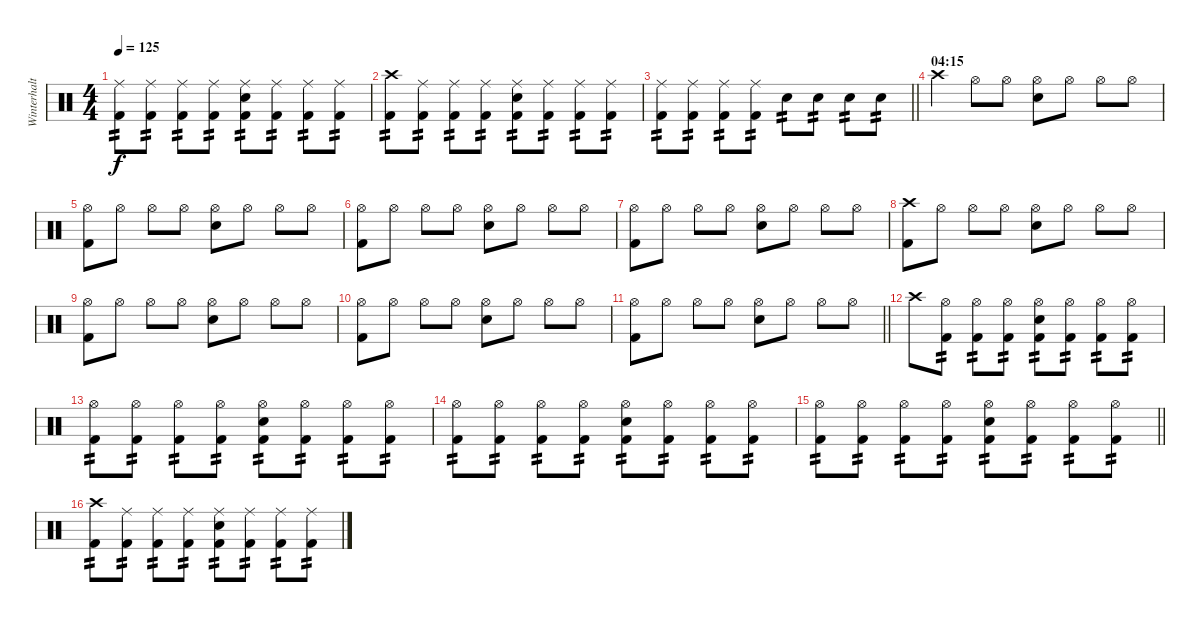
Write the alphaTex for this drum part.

\track ("Winterhalten" "Winterhalt") {instrument percussion}
\staff {score}
\articulation defaults
\ts (4 4)
\tempo 125
\clef neutral
\ks c
("Ride (middle)" "Kick (hit) 2").8{tp 2 dy f} ("Ride (middle)" "Kick (hit) 2").8{tp 2} ("Ride (middle)" "Kick (hit) 2").8{tp 2} ("Ride (middle)" "Kick (hit) 2").8{tp 2} ("Ride (middle)" "Snare (hit) 2" "Kick (hit) 2").8{tp 2} ("Ride (middle)" "Kick (hit) 2").8{tp 2} ("Ride (middle)" "Kick (hit) 2").8{tp 2} ("Ride (middle)" "Kick (hit) 2").8{tp 2} |
("Crash high (hit)" "Kick (hit) 2").8{tp 2} ("Ride (middle)" "Kick (hit) 2").8{tp 2} ("Ride (middle)" "Kick (hit) 2").8{tp 2} ("Ride (middle)" "Kick (hit) 2").8{tp 2} ("Ride (middle)" "Snare (hit) 2" "Kick (hit) 2").8{tp 2} ("Ride (middle)" "Kick (hit) 2").8{tp 2} ("Ride (middle)" "Kick (hit) 2").8{tp 2} ("Ride (middle)" "Kick (hit) 2").8{tp 2} |
\barLineRight lightlight
("Ride (middle)" "Kick (hit) 2").8{tp 2} ("Ride (middle)" "Kick (hit) 2").8{tp 2} ("Ride (middle)" "Kick (hit) 2").8{tp 2} ("Ride (middle)" "Kick (hit) 2").8{tp 2} "Snare (hit) 2".8{tp 2} "Snare (hit) 2".8{tp 2} "Snare (hit) 2".8{tp 2} "Snare (hit) 2".8{tp 2} |
\section ("" "04:15")
"Crash high (hit)".4 "Hi-Hat (open)".8 "Hi-Hat (open)".8 ("Hi-Hat (open)" "Snare (hit) 2").8 "Hi-Hat (open)".8 "Hi-Hat (open)".8 "Hi-Hat (open)".8 |
("Hi-Hat (open)" "Kick (hit) 2").8 "Hi-Hat (open)".8 "Hi-Hat (open)".8 "Hi-Hat (open)".8 ("Hi-Hat (open)" "Snare (hit) 2").8 "Hi-Hat (open)".8 "Hi-Hat (open)".8 "Hi-Hat (open)".8 |
("Hi-Hat (open)" "Kick (hit) 2").8 "Hi-Hat (open)".8 "Hi-Hat (open)".8 "Hi-Hat (open)".8 ("Hi-Hat (open)" "Snare (hit) 2").8 "Hi-Hat (open)".8 "Hi-Hat (open)".8 "Hi-Hat (open)".8 |
("Hi-Hat (open)" "Kick (hit) 2").8 "Hi-Hat (open)".8 "Hi-Hat (open)".8 "Hi-Hat (open)".8 ("Hi-Hat (open)" "Snare (hit) 2").8 "Hi-Hat (open)".8 "Hi-Hat (open)".8 "Hi-Hat (open)".8 |
("Crash high (hit)" "Kick (hit) 2").8 "Hi-Hat (open)".8 "Hi-Hat (open)".8 "Hi-Hat (open)".8 ("Hi-Hat (open)" "Snare (hit) 2").8 "Hi-Hat (open)".8 "Hi-Hat (open)".8 "Hi-Hat (open)".8 |
("Hi-Hat (open)" "Kick (hit) 2").8 "Hi-Hat (open)".8 "Hi-Hat (open)".8 "Hi-Hat (open)".8 ("Hi-Hat (open)" "Snare (hit) 2").8 "Hi-Hat (open)".8 "Hi-Hat (open)".8 "Hi-Hat (open)".8 |
("Hi-Hat (open)" "Kick (hit) 2").8 "Hi-Hat (open)".8 "Hi-Hat (open)".8 "Hi-Hat (open)".8 ("Hi-Hat (open)" "Snare (hit) 2").8 "Hi-Hat (open)".8 "Hi-Hat (open)".8 "Hi-Hat (open)".8 |
\barLineRight lightlight
("Hi-Hat (open)" "Kick (hit) 2").8 "Hi-Hat (open)".8 "Hi-Hat (open)".8 "Hi-Hat (open)".8 ("Hi-Hat (open)" "Snare (hit) 2").8 "Hi-Hat (open)".8 "Hi-Hat (open)".8 "Hi-Hat (open)".8 |
"Crash high (hit)".8 ("Hi-Hat (open)" "Kick (hit) 2").8{tp 2} ("Hi-Hat (open)" "Kick (hit) 2").8{tp 2} ("Hi-Hat (open)" "Kick (hit) 2").8{tp 2} ("Hi-Hat (open)" "Snare (hit) 2" "Kick (hit) 2").8{tp 2} ("Hi-Hat (open)" "Kick (hit) 2").8{tp 2} ("Hi-Hat (open)" "Kick (hit) 2").8{tp 2} ("Hi-Hat (open)" "Kick (hit) 2").8{tp 2} |
("Hi-Hat (open)" "Kick (hit) 2").8{tp 2} ("Hi-Hat (open)" "Kick (hit) 2").8{tp 2} ("Hi-Hat (open)" "Kick (hit) 2").8{tp 2} ("Hi-Hat (open)" "Kick (hit) 2").8{tp 2} ("Hi-Hat (open)" "Snare (hit) 2" "Kick (hit) 2").8{tp 2} ("Hi-Hat (open)" "Kick (hit) 2").8{tp 2} ("Hi-Hat (open)" "Kick (hit) 2").8{tp 2} ("Hi-Hat (open)" "Kick (hit) 2").8{tp 2} |
("Hi-Hat (open)" "Kick (hit) 2").8{tp 2} ("Hi-Hat (open)" "Kick (hit) 2").8{tp 2} ("Hi-Hat (open)" "Kick (hit) 2").8{tp 2} ("Hi-Hat (open)" "Kick (hit) 2").8{tp 2} ("Hi-Hat (open)" "Snare (hit) 2" "Kick (hit) 2").8{tp 2} ("Hi-Hat (open)" "Kick (hit) 2").8{tp 2} ("Hi-Hat (open)" "Kick (hit) 2").8{tp 2} ("Hi-Hat (open)" "Kick (hit) 2").8{tp 2} |
\barLineRight lightlight
("Hi-Hat (open)" "Kick (hit) 2").8{tp 2} ("Hi-Hat (open)" "Kick (hit) 2").8{tp 2} ("Hi-Hat (open)" "Kick (hit) 2").8{tp 2} ("Hi-Hat (open)" "Kick (hit) 2").8{tp 2} ("Hi-Hat (open)" "Snare (hit) 2" "Kick (hit) 2").8{tp 2} ("Hi-Hat (open)" "Kick (hit) 2").8{tp 2} ("Hi-Hat (open)" "Kick (hit) 2").8{tp 2} ("Hi-Hat (open)" "Kick (hit) 2").8{tp 2} |
("Crash high (hit)" "Kick (hit) 2").8{tp 2} ("Ride (middle)" "Kick (hit) 2").8{tp 2} ("Ride (middle)" "Kick (hit) 2").8{tp 2} ("Ride (middle)" "Kick (hit) 2").8{tp 2} ("Ride (middle)" "Snare (hit) 2" "Kick (hit) 2").8{tp 2} ("Ride (middle)" "Kick (hit) 2").8{tp 2} ("Ride (middle)" "Kick (hit) 2").8{tp 2} ("Ride (middle)" "Kick (hit) 2").8{tp 2}
